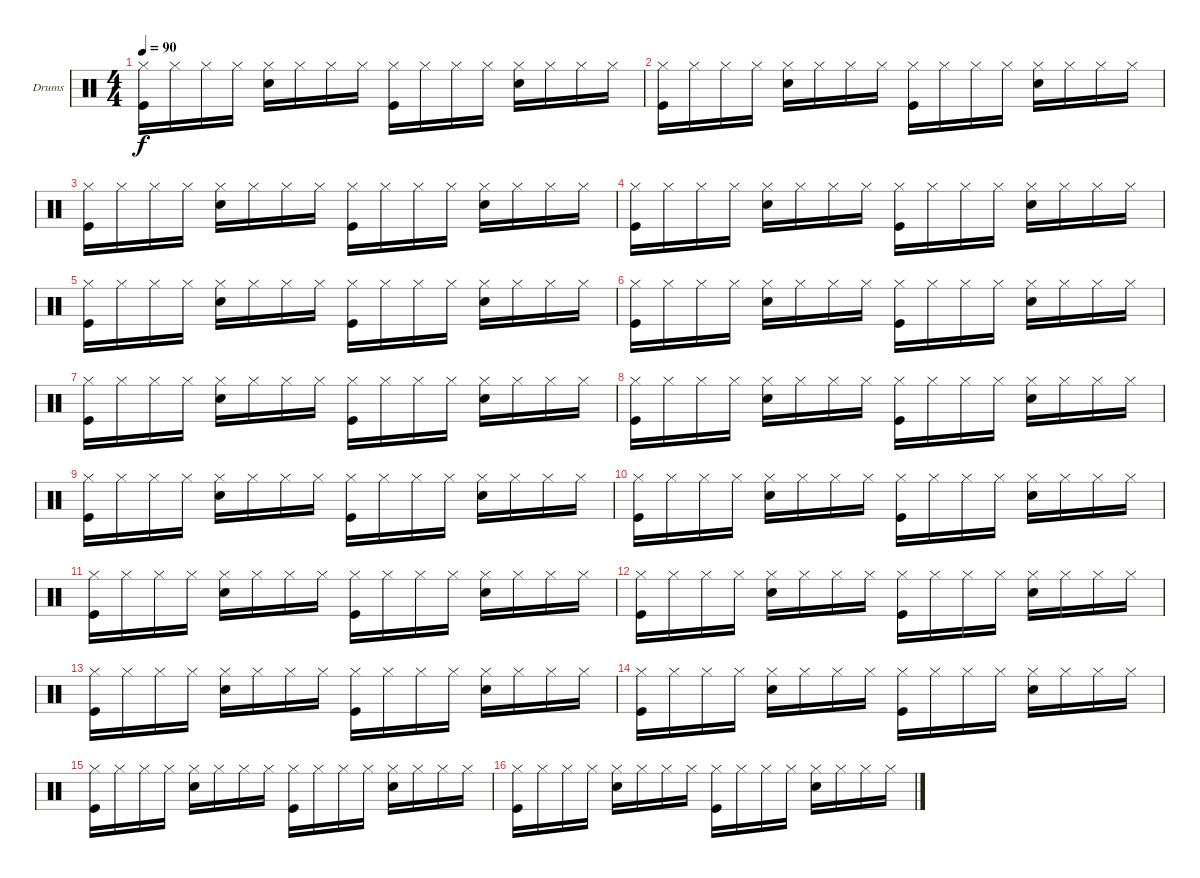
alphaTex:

\defaultSystemsLayout 4
\bracketExtendMode groupsimilarinstruments
\firstSystemTrackNameOrientation horizontal
\otherSystemsTrackNameOrientation horizontal
\track ("Drumkit" "Drums") {instrument percussion}
\staff {score}
\articulation defaults
\ts (4 4)
\tempo 90
\clef neutral
\ks c
("Kick (hit)" "Hi-Hat (closed)").16{dy f} "Hi-Hat (closed)".16 "Hi-Hat (closed)".16 "Hi-Hat (closed)".16 ("Hi-Hat (closed)" "Snare (hit) 2").16 "Hi-Hat (closed)".16 "Hi-Hat (closed)".16 "Hi-Hat (closed)".16 ("Hi-Hat (closed)" "Kick (hit)").16 "Hi-Hat (closed)".16 "Hi-Hat (closed)".16 "Hi-Hat (closed)".16 ("Snare (hit) 2" "Hi-Hat (closed)").16 "Hi-Hat (closed)".16 "Hi-Hat (closed)".16 "Hi-Hat (closed)".16 |
("Hi-Hat (closed)" "Kick (hit)").16 "Hi-Hat (closed)".16 "Hi-Hat (closed)".16 "Hi-Hat (closed)".16 ("Hi-Hat (closed)" "Snare (hit) 2").16 "Hi-Hat (closed)".16 "Hi-Hat (closed)".16 "Hi-Hat (closed)".16 ("Kick (hit)" "Hi-Hat (closed)").16 "Hi-Hat (closed)".16 "Hi-Hat (closed)".16 "Hi-Hat (closed)".16 ("Hi-Hat (closed)" "Snare (hit) 2").16 "Hi-Hat (closed)".16 "Hi-Hat (closed)".16 "Hi-Hat (closed)".16 |
("Hi-Hat (closed)" "Kick (hit)").16 "Hi-Hat (closed)".16 "Hi-Hat (closed)".16 "Hi-Hat (closed)".16 ("Snare (hit) 2" "Hi-Hat (closed)").16 "Hi-Hat (closed)".16 "Hi-Hat (closed)".16 "Hi-Hat (closed)".16 ("Hi-Hat (closed)" "Kick (hit)").16 "Hi-Hat (closed)".16 "Hi-Hat (closed)".16 "Hi-Hat (closed)".16 ("Hi-Hat (closed)" "Snare (hit) 2").16 "Hi-Hat (closed)".16 "Hi-Hat (closed)".16 "Hi-Hat (closed)".16 |
("Kick (hit)" "Hi-Hat (closed)").16 "Hi-Hat (closed)".16 "Hi-Hat (closed)".16 "Hi-Hat (closed)".16 ("Hi-Hat (closed)" "Snare (hit) 2").16 "Hi-Hat (closed)".16 "Hi-Hat (closed)".16 "Hi-Hat (closed)".16 ("Hi-Hat (closed)" "Kick (hit)").16 "Hi-Hat (closed)".16 "Hi-Hat (closed)".16 "Hi-Hat (closed)".16 ("Snare (hit) 2" "Hi-Hat (closed)").16 "Hi-Hat (closed)".16 "Hi-Hat (closed)".16 "Hi-Hat (closed)".16 |
("Hi-Hat (closed)" "Kick (hit)").16 "Hi-Hat (closed)".16 "Hi-Hat (closed)".16 "Hi-Hat (closed)".16 ("Hi-Hat (closed)" "Snare (hit) 2").16 "Hi-Hat (closed)".16 "Hi-Hat (closed)".16 "Hi-Hat (closed)".16 ("Kick (hit)" "Hi-Hat (closed)").16 "Hi-Hat (closed)".16 "Hi-Hat (closed)".16 "Hi-Hat (closed)".16 ("Hi-Hat (closed)" "Snare (hit) 2").16 "Hi-Hat (closed)".16 "Hi-Hat (closed)".16 "Hi-Hat (closed)".16 |
("Hi-Hat (closed)" "Kick (hit)").16 "Hi-Hat (closed)".16 "Hi-Hat (closed)".16 "Hi-Hat (closed)".16 ("Snare (hit) 2" "Hi-Hat (closed)").16 "Hi-Hat (closed)".16 "Hi-Hat (closed)".16 "Hi-Hat (closed)".16 ("Hi-Hat (closed)" "Kick (hit)").16 "Hi-Hat (closed)".16 "Hi-Hat (closed)".16 "Hi-Hat (closed)".16 ("Hi-Hat (closed)" "Snare (hit) 2").16 "Hi-Hat (closed)".16 "Hi-Hat (closed)".16 "Hi-Hat (closed)".16 |
("Kick (hit)" "Hi-Hat (closed)").16 "Hi-Hat (closed)".16 "Hi-Hat (closed)".16 "Hi-Hat (closed)".16 ("Hi-Hat (closed)" "Snare (hit) 2").16 "Hi-Hat (closed)".16 "Hi-Hat (closed)".16 "Hi-Hat (closed)".16 ("Hi-Hat (closed)" "Kick (hit)").16 "Hi-Hat (closed)".16 "Hi-Hat (closed)".16 "Hi-Hat (closed)".16 ("Snare (hit) 2" "Hi-Hat (closed)").16 "Hi-Hat (closed)".16 "Hi-Hat (closed)".16 "Hi-Hat (closed)".16 |
("Hi-Hat (closed)" "Kick (hit)").16 "Hi-Hat (closed)".16 "Hi-Hat (closed)".16 "Hi-Hat (closed)".16 ("Hi-Hat (closed)" "Snare (hit) 2").16 "Hi-Hat (closed)".16 "Hi-Hat (closed)".16 "Hi-Hat (closed)".16 ("Kick (hit)" "Hi-Hat (closed)").16 "Hi-Hat (closed)".16 "Hi-Hat (closed)".16 "Hi-Hat (closed)".16 ("Hi-Hat (closed)" "Snare (hit) 2").16 "Hi-Hat (closed)".16 "Hi-Hat (closed)".16 "Hi-Hat (closed)".16 |
("Hi-Hat (closed)" "Kick (hit)").16 "Hi-Hat (closed)".16 "Hi-Hat (closed)".16 "Hi-Hat (closed)".16 ("Snare (hit) 2" "Hi-Hat (closed)").16 "Hi-Hat (closed)".16 "Hi-Hat (closed)".16 "Hi-Hat (closed)".16 ("Hi-Hat (closed)" "Kick (hit)").16 "Hi-Hat (closed)".16 "Hi-Hat (closed)".16 "Hi-Hat (closed)".16 ("Hi-Hat (closed)" "Snare (hit) 2").16 "Hi-Hat (closed)".16 "Hi-Hat (closed)".16 "Hi-Hat (closed)".16 |
("Hi-Hat (closed)" "Kick (hit)").16 "Hi-Hat (closed)".16 "Hi-Hat (closed)".16 "Hi-Hat (closed)".16 ("Snare (hit) 2" "Hi-Hat (closed)").16 "Hi-Hat (closed)".16 "Hi-Hat (closed)".16 "Hi-Hat (closed)".16 ("Hi-Hat (closed)" "Kick (hit)").16 "Hi-Hat (closed)".16 "Hi-Hat (closed)".16 "Hi-Hat (closed)".16 ("Hi-Hat (closed)" "Snare (hit) 2").16 "Hi-Hat (closed)".16 "Hi-Hat (closed)".16 "Hi-Hat (closed)".16 |
("Kick (hit)" "Hi-Hat (closed)").16 "Hi-Hat (closed)".16 "Hi-Hat (closed)".16 "Hi-Hat (closed)".16 ("Hi-Hat (closed)" "Snare (hit) 2").16 "Hi-Hat (closed)".16 "Hi-Hat (closed)".16 "Hi-Hat (closed)".16 ("Hi-Hat (closed)" "Kick (hit)").16 "Hi-Hat (closed)".16 "Hi-Hat (closed)".16 "Hi-Hat (closed)".16 ("Snare (hit) 2" "Hi-Hat (closed)").16 "Hi-Hat (closed)".16 "Hi-Hat (closed)".16 "Hi-Hat (closed)".16 |
("Hi-Hat (closed)" "Kick (hit)").16 "Hi-Hat (closed)".16 "Hi-Hat (closed)".16 "Hi-Hat (closed)".16 ("Hi-Hat (closed)" "Snare (hit) 2").16 "Hi-Hat (closed)".16 "Hi-Hat (closed)".16 "Hi-Hat (closed)".16 ("Kick (hit)" "Hi-Hat (closed)").16 "Hi-Hat (closed)".16 "Hi-Hat (closed)".16 "Hi-Hat (closed)".16 ("Hi-Hat (closed)" "Snare (hit) 2").16 "Hi-Hat (closed)".16 "Hi-Hat (closed)".16 "Hi-Hat (closed)".16 |
("Hi-Hat (closed)" "Kick (hit)").16 "Hi-Hat (closed)".16 "Hi-Hat (closed)".16 "Hi-Hat (closed)".16 ("Snare (hit) 2" "Hi-Hat (closed)").16 "Hi-Hat (closed)".16 "Hi-Hat (closed)".16 "Hi-Hat (closed)".16 ("Hi-Hat (closed)" "Kick (hit)").16 "Hi-Hat (closed)".16 "Hi-Hat (closed)".16 "Hi-Hat (closed)".16 ("Hi-Hat (closed)" "Snare (hit) 2").16 "Hi-Hat (closed)".16 "Hi-Hat (closed)".16 "Hi-Hat (closed)".16 |
("Kick (hit)" "Hi-Hat (closed)").16 "Hi-Hat (closed)".16 "Hi-Hat (closed)".16 "Hi-Hat (closed)".16 ("Hi-Hat (closed)" "Snare (hit) 2").16 "Hi-Hat (closed)".16 "Hi-Hat (closed)".16 "Hi-Hat (closed)".16 ("Hi-Hat (closed)" "Kick (hit)").16 "Hi-Hat (closed)".16 "Hi-Hat (closed)".16 "Hi-Hat (closed)".16 ("Snare (hit) 2" "Hi-Hat (closed)").16 "Hi-Hat (closed)".16 "Hi-Hat (closed)".16 "Hi-Hat (closed)".16 |
("Hi-Hat (closed)" "Kick (hit)").16 "Hi-Hat (closed)".16 "Hi-Hat (closed)".16 "Hi-Hat (closed)".16 ("Hi-Hat (closed)" "Snare (hit) 2").16 "Hi-Hat (closed)".16 "Hi-Hat (closed)".16 "Hi-Hat (closed)".16 ("Kick (hit)" "Hi-Hat (closed)").16 "Hi-Hat (closed)".16 "Hi-Hat (closed)".16 "Hi-Hat (closed)".16 ("Hi-Hat (closed)" "Snare (hit) 2").16 "Hi-Hat (closed)".16 "Hi-Hat (closed)".16 "Hi-Hat (closed)".16 |
("Hi-Hat (closed)" "Kick (hit)").16 "Hi-Hat (closed)".16 "Hi-Hat (closed)".16 "Hi-Hat (closed)".16 ("Snare (hit) 2" "Hi-Hat (closed)").16 "Hi-Hat (closed)".16 "Hi-Hat (closed)".16 "Hi-Hat (closed)".16 ("Hi-Hat (closed)" "Kick (hit)").16 "Hi-Hat (closed)".16 "Hi-Hat (closed)".16 "Hi-Hat (closed)".16 ("Hi-Hat (closed)" "Snare (hit) 2").16 "Hi-Hat (closed)".16 "Hi-Hat (closed)".16 "Hi-Hat (closed)".16
